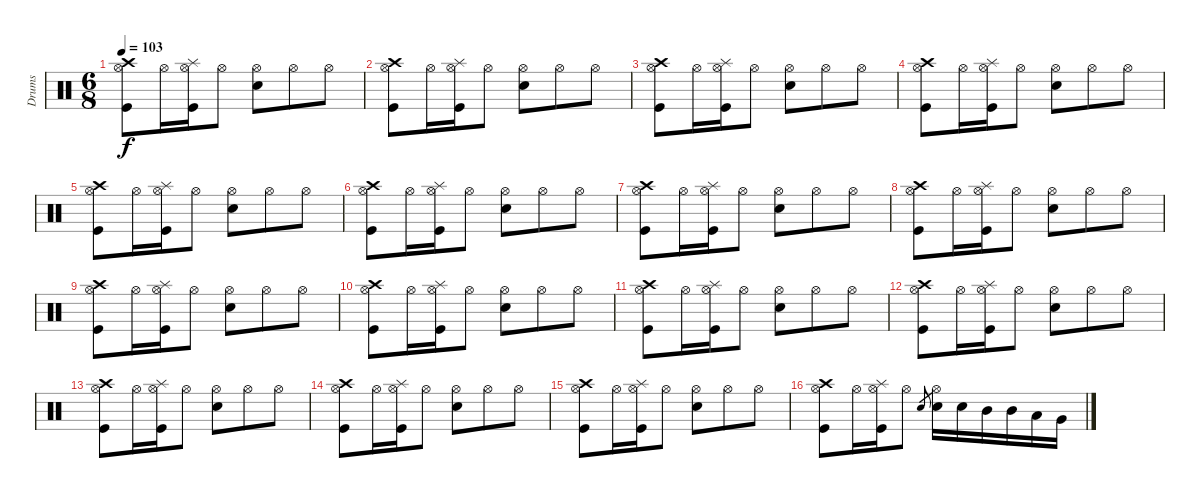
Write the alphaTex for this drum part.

\track ("Drums" "Drums") {instrument percussion}
\staff {score}
\articulation defaults
\ts (6 8)
\tempo 103
\clef neutral
\ks c
("Crash high (hit)" "Hi-Hat (open)" "Kick (hit)").8{dy f} "Hi-Hat (open)".16 ("Splash (hit)" "Hi-Hat (open)" "Kick (hit)").16 "Hi-Hat (open)".8 ("Hi-Hat (open)" "Electric Snare (hit)").8 "Hi-Hat (open)".8 "Hi-Hat (open)".8 |
("Crash high (hit)" "Hi-Hat (open)" "Kick (hit)").8 "Hi-Hat (open)".16 ("Splash (hit)" "Hi-Hat (open)" "Kick (hit)").16 "Hi-Hat (open)".8 ("Hi-Hat (open)" "Electric Snare (hit)").8 "Hi-Hat (open)".8 "Hi-Hat (open)".8 |
("Crash high (hit)" "Hi-Hat (open)" "Kick (hit)").8 "Hi-Hat (open)".16 ("Splash (hit)" "Hi-Hat (open)" "Kick (hit)").16 "Hi-Hat (open)".8 ("Hi-Hat (open)" "Electric Snare (hit)").8 "Hi-Hat (open)".8 "Hi-Hat (open)".8 |
("Crash high (hit)" "Hi-Hat (open)" "Kick (hit)").8 "Hi-Hat (open)".16 ("Splash (hit)" "Hi-Hat (open)" "Kick (hit)").16 "Hi-Hat (open)".8 ("Hi-Hat (open)" "Electric Snare (hit)").8 "Hi-Hat (open)".8 "Hi-Hat (open)".8 |
("Crash high (hit)" "Hi-Hat (open)" "Kick (hit)").8 "Hi-Hat (open)".16 ("Splash (hit)" "Hi-Hat (open)" "Kick (hit)").16 "Hi-Hat (open)".8 ("Hi-Hat (open)" "Electric Snare (hit)").8 "Hi-Hat (open)".8 "Hi-Hat (open)".8 |
("Crash high (hit)" "Hi-Hat (open)" "Kick (hit)").8 "Hi-Hat (open)".16 ("Splash (hit)" "Hi-Hat (open)" "Kick (hit)").16 "Hi-Hat (open)".8 ("Hi-Hat (open)" "Electric Snare (hit)").8 "Hi-Hat (open)".8 "Hi-Hat (open)".8 |
("Crash high (hit)" "Hi-Hat (open)" "Kick (hit)").8 "Hi-Hat (open)".16 ("Splash (hit)" "Hi-Hat (open)" "Kick (hit)").16 "Hi-Hat (open)".8 ("Hi-Hat (open)" "Electric Snare (hit)").8 "Hi-Hat (open)".8 "Hi-Hat (open)".8 |
("Crash high (hit)" "Hi-Hat (open)" "Kick (hit)").8 "Hi-Hat (open)".16 ("Splash (hit)" "Hi-Hat (open)" "Kick (hit)").16 "Hi-Hat (open)".8 ("Hi-Hat (open)" "Electric Snare (hit)").8 "Hi-Hat (open)".8 "Hi-Hat (open)".8 |
("Crash high (hit)" "Hi-Hat (open)" "Kick (hit)").8 "Hi-Hat (open)".16 ("Splash (hit)" "Hi-Hat (open)" "Kick (hit)").16 "Hi-Hat (open)".8 ("Hi-Hat (open)" "Electric Snare (hit)").8 "Hi-Hat (open)".8 "Hi-Hat (open)".8 |
("Crash high (hit)" "Hi-Hat (open)" "Kick (hit)").8 "Hi-Hat (open)".16 ("Splash (hit)" "Hi-Hat (open)" "Kick (hit)").16 "Hi-Hat (open)".8 ("Hi-Hat (open)" "Electric Snare (hit)").8 "Hi-Hat (open)".8 "Hi-Hat (open)".8 |
("Crash high (hit)" "Hi-Hat (open)" "Kick (hit)").8 "Hi-Hat (open)".16 ("Splash (hit)" "Hi-Hat (open)" "Kick (hit)").16 "Hi-Hat (open)".8 ("Hi-Hat (open)" "Electric Snare (hit)").8 "Hi-Hat (open)".8 "Hi-Hat (open)".8 |
("Crash high (hit)" "Hi-Hat (open)" "Kick (hit)").8 "Hi-Hat (open)".16 ("Splash (hit)" "Hi-Hat (open)" "Kick (hit)").16 "Hi-Hat (open)".8 ("Hi-Hat (open)" "Electric Snare (hit)").8 "Hi-Hat (open)".8 "Hi-Hat (open)".8 |
("Crash high (hit)" "Hi-Hat (open)" "Kick (hit)").8 "Hi-Hat (open)".16 ("Splash (hit)" "Hi-Hat (open)" "Kick (hit)").16 "Hi-Hat (open)".8 ("Hi-Hat (open)" "Electric Snare (hit)").8 "Hi-Hat (open)".8 "Hi-Hat (open)".8 |
("Crash high (hit)" "Hi-Hat (open)" "Kick (hit)").8 "Hi-Hat (open)".16 ("Splash (hit)" "Hi-Hat (open)" "Kick (hit)").16 "Hi-Hat (open)".8 ("Hi-Hat (open)" "Electric Snare (hit)").8 "Hi-Hat (open)".8 "Hi-Hat (open)".8 |
("Crash high (hit)" "Hi-Hat (open)" "Kick (hit)").8 "Hi-Hat (open)".16 ("Splash (hit)" "Hi-Hat (open)" "Kick (hit)").16 "Hi-Hat (open)".8 ("Hi-Hat (open)" "Electric Snare (hit)").8 "Hi-Hat (open)".8 "Hi-Hat (open)".8 |
("Crash high (hit)" "Hi-Hat (open)" "Kick (hit)").8 "Hi-Hat (open)".16 ("Splash (hit)" "Hi-Hat (open)" "Kick (hit)").16 "Hi-Hat (open)".8 "Electric Snare (hit)".8{gr} ("Hi-Hat (open)" "Electric Snare (hit)").16 "Electric Snare (hit)".16 "Mid Tom (hit)".16 "Mid Tom (hit)".16 "Low Tom (hit)".16 "Very Low Tom (hit)".16
